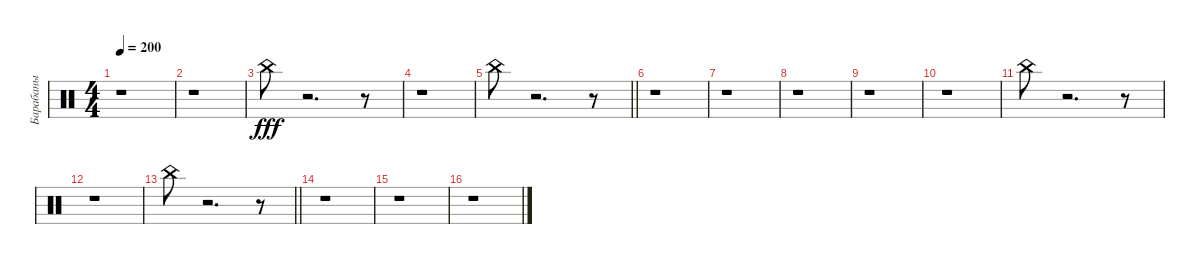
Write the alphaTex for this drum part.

\track ("Барабаны" "Барабаны") {instrument percussion}
\staff {score}
\articulation defaults
\ts (4 4)
\tempo 200
\clef neutral
\ks c
r.1{dy fff} |
r.1 |
"China (hit)".8 r.2{d} r.8 |
r.1 |
\barLineRight lightlight "China (hit)".8
r.2{d} r.8 |
r.1 |
r.1 |
r.1 |
r.1 |
r.1 |
"China (hit)".8 r.2{d} r.8 |
r.1 |
\barLineRight lightlight "China (hit)".8
r.2{d} r.8 |
\section ("" " ")
r.1 |
r.1 |
r.1
